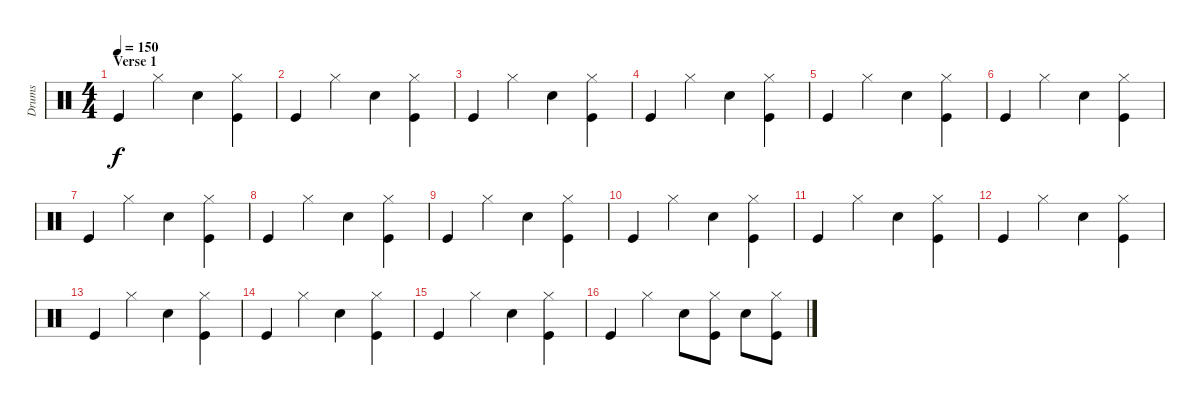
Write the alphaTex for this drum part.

\track ("Drums" "Drums") {instrument percussion}
\staff {score}
\articulation defaults
\ts (4 4)
\section ("" "Verse 1")
\tempo 150
\clef neutral
\ks c "Kick (hit)".4{dy f} "Hi-Hat (closed)".4 "Electric Snare (hit)".4
("Hi-Hat (closed)" "Kick (hit)").4 |
"Kick (hit)".4 "Hi-Hat (closed)".4 "Electric Snare (hit)".4 ("Hi-Hat (closed)" "Kick (hit)").4 |
"Kick (hit)".4 "Hi-Hat (closed)".4 "Electric Snare (hit)".4 ("Hi-Hat (closed)" "Kick (hit)").4 |
"Kick (hit)".4 "Hi-Hat (closed)".4 "Electric Snare (hit)".4 ("Hi-Hat (closed)" "Kick (hit)").4 |
"Kick (hit)".4 "Hi-Hat (closed)".4 "Electric Snare (hit)".4 ("Hi-Hat (closed)" "Kick (hit)").4 |
"Kick (hit)".4 "Hi-Hat (closed)".4 "Electric Snare (hit)".4 ("Hi-Hat (closed)" "Kick (hit)").4 |
"Kick (hit)".4 "Hi-Hat (closed)".4 "Electric Snare (hit)".4 ("Hi-Hat (closed)" "Kick (hit)").4 |
"Kick (hit)".4 "Hi-Hat (closed)".4 "Electric Snare (hit)".4 ("Hi-Hat (closed)" "Kick (hit)").4 |
"Kick (hit)".4 "Hi-Hat (closed)".4 "Electric Snare (hit)".4 ("Hi-Hat (closed)" "Kick (hit)").4 |
"Kick (hit)".4 "Hi-Hat (closed)".4 "Electric Snare (hit)".4 ("Hi-Hat (closed)" "Kick (hit)").4 |
"Kick (hit)".4 "Hi-Hat (closed)".4 "Electric Snare (hit)".4 ("Hi-Hat (closed)" "Kick (hit)").4 |
"Kick (hit)".4 "Hi-Hat (closed)".4 "Electric Snare (hit)".4 ("Hi-Hat (closed)" "Kick (hit)").4 |
"Kick (hit)".4 "Hi-Hat (closed)".4 "Electric Snare (hit)".4 ("Hi-Hat (closed)" "Kick (hit)").4 |
"Kick (hit)".4 "Hi-Hat (closed)".4 "Electric Snare (hit)".4 ("Hi-Hat (closed)" "Kick (hit)").4 |
"Kick (hit)".4 "Hi-Hat (closed)".4 "Electric Snare (hit)".4 ("Hi-Hat (closed)" "Kick (hit)").4 |
"Kick (hit)".4 "Hi-Hat (closed)".4 "Electric Snare (hit)".8 ("Hi-Hat (closed)" "Kick (hit)").8 "Electric Snare (hit)".8 ("Hi-Hat (closed)" "Kick (hit)").8
